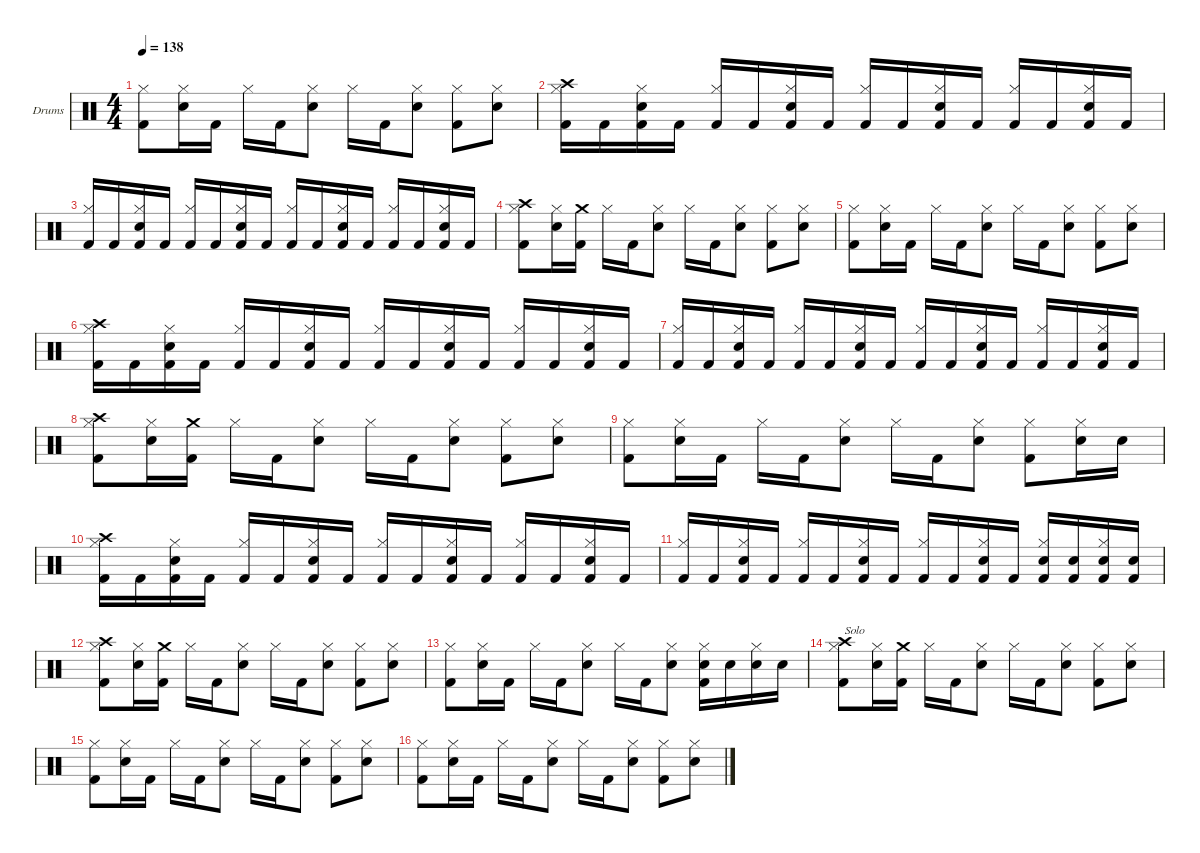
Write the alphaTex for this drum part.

\hideDynamics
\bracketExtendMode nobrackets
\firstSystemTrackNameOrientation horizontal
\otherSystemsTrackNameOrientation horizontal
\track ("Drumkit" "Drums") {instrument percussion}
\staff {score}
\articulation defaults
\ts (4 4)
\tempo 138
\clef neutral
\ks c
("Hi-Hat (closed)" "Kick (hit) 2").8{dy f beam Down} ("Snare (hit) 2" "Hi-Hat (closed)").16{beam Down} "Kick (hit) 2".16{beam Down} "Hi-Hat (closed)".16{beam Down} "Kick (hit) 2".16{beam Down} ("Snare (hit) 2" "Hi-Hat (closed)").8{beam Down} "Hi-Hat (closed)".16{beam Down} "Kick (hit) 2".16{beam Down} ("Snare (hit) 2" "Hi-Hat (closed)").8{beam Down} ("Hi-Hat (closed)" "Kick (hit) 2").8{beam Down} ("Snare (hit) 2" "Hi-Hat (closed)").8{beam Down} |
("Crash high (hit)" "Hi-Hat (closed)" "Kick (hit) 2").16{beam Down} "Kick (hit) 2".16{beam Down} ("Snare (hit) 2" "Hi-Hat (closed)" "Kick (hit) 2").16{beam Down} "Kick (hit) 2".16{beam Down} ("Hi-Hat (closed)" "Kick (hit) 2").16{beam Up} "Kick (hit) 2".16{beam Up} ("Snare (hit) 2" "Hi-Hat (closed)" "Kick (hit) 2").16{beam Up} "Kick (hit) 2".16{beam Up} ("Hi-Hat (closed)" "Kick (hit) 2").16{beam Up} "Kick (hit) 2".16{beam Up} ("Snare (hit) 2" "Hi-Hat (closed)" "Kick (hit) 2").16{beam Up} "Kick (hit) 2".16{beam Up} ("Hi-Hat (closed)" "Kick (hit) 2").16{beam Up} "Kick (hit) 2".16{beam Up} ("Snare (hit) 2" "Hi-Hat (closed)" "Kick (hit) 2").16{beam Up} "Kick (hit) 2".16{beam Up} |
("Hi-Hat (closed)" "Kick (hit) 2").16{beam Up} "Kick (hit) 2".16{beam Up} ("Snare (hit) 2" "Hi-Hat (closed)" "Kick (hit) 2").16{beam Up} "Kick (hit) 2".16{beam Up} ("Hi-Hat (closed)" "Kick (hit) 2").16{beam Up} "Kick (hit) 2".16{beam Up} ("Snare (hit) 2" "Hi-Hat (closed)" "Kick (hit) 2").16{beam Up} "Kick (hit) 2".16{beam Up} ("Hi-Hat (closed)" "Kick (hit) 2").16{beam Up} "Kick (hit) 2".16{beam Up} ("Snare (hit) 2" "Hi-Hat (closed)" "Kick (hit) 2").16{beam Up} "Kick (hit) 2".16{beam Up} ("Hi-Hat (closed)" "Kick (hit) 2").16{beam Up} "Kick (hit) 2".16{beam Up} ("Snare (hit) 2" "Hi-Hat (closed)" "Kick (hit) 2").16{beam Up} "Kick (hit) 2".16{beam Up} |
("Crash high (hit)" "Hi-Hat (closed)" "Kick (hit) 2").8{beam Down} ("Snare (hit) 2" "Hi-Hat (closed)").16{beam Down} ("Crash medium (hit)" "Kick (hit) 2").16{beam Down} "Hi-Hat (closed)".16{beam Down} "Kick (hit) 2".16{beam Down} ("Snare (hit) 2" "Hi-Hat (closed)").8{beam Down} "Hi-Hat (closed)".16{beam Down} "Kick (hit) 2".16{beam Down} ("Snare (hit) 2" "Hi-Hat (closed)").8{beam Down} ("Hi-Hat (closed)" "Kick (hit) 2").8{beam Down} ("Snare (hit) 2" "Hi-Hat (closed)").8{beam Down} |
("Hi-Hat (closed)" "Kick (hit) 2").8{beam Down} ("Snare (hit) 2" "Hi-Hat (closed)").16{beam Down} "Kick (hit) 2".16{beam Down} "Hi-Hat (closed)".16{beam Down} "Kick (hit) 2".16{beam Down} ("Snare (hit) 2" "Hi-Hat (closed)").8{beam Down} "Hi-Hat (closed)".16{beam Down} "Kick (hit) 2".16{beam Down} ("Snare (hit) 2" "Hi-Hat (closed)").8{beam Down} ("Hi-Hat (closed)" "Kick (hit) 2").8{beam Down} ("Snare (hit) 2" "Hi-Hat (closed)").8{beam Down} |
("Crash high (hit)" "Hi-Hat (closed)" "Kick (hit) 2").16{beam Down} "Kick (hit) 2".16{beam Down} ("Snare (hit) 2" "Hi-Hat (closed)" "Kick (hit) 2").16{beam Down} "Kick (hit) 2".16{beam Down} ("Hi-Hat (closed)" "Kick (hit) 2").16{beam Up} "Kick (hit) 2".16{beam Up} ("Snare (hit) 2" "Hi-Hat (closed)" "Kick (hit) 2").16{beam Up} "Kick (hit) 2".16{beam Up} ("Hi-Hat (closed)" "Kick (hit) 2").16{beam Up} "Kick (hit) 2".16{beam Up} ("Snare (hit) 2" "Hi-Hat (closed)" "Kick (hit) 2").16{beam Up} "Kick (hit) 2".16{beam Up} ("Hi-Hat (closed)" "Kick (hit) 2").16{beam Up} "Kick (hit) 2".16{beam Up} ("Snare (hit) 2" "Hi-Hat (closed)" "Kick (hit) 2").16{beam Up} "Kick (hit) 2".16{beam Up} |
("Hi-Hat (closed)" "Kick (hit) 2").16{beam Up} "Kick (hit) 2".16{beam Up} ("Snare (hit) 2" "Hi-Hat (closed)" "Kick (hit) 2").16{beam Up} "Kick (hit) 2".16{beam Up} ("Hi-Hat (closed)" "Kick (hit) 2").16{beam Up} "Kick (hit) 2".16{beam Up} ("Snare (hit) 2" "Hi-Hat (closed)" "Kick (hit) 2").16{beam Up} "Kick (hit) 2".16{beam Up} ("Hi-Hat (closed)" "Kick (hit) 2").16{beam Up} "Kick (hit) 2".16{beam Up} ("Snare (hit) 2" "Hi-Hat (closed)" "Kick (hit) 2").16{beam Up} "Kick (hit) 2".16{beam Up} ("Hi-Hat (closed)" "Kick (hit) 2").16{beam Up} "Kick (hit) 2".16{beam Up} ("Snare (hit) 2" "Hi-Hat (closed)" "Kick (hit) 2").16{beam Up} "Kick (hit) 2".16{beam Up} |
("Crash high (hit)" "Hi-Hat (closed)" "Kick (hit) 2").8{beam Down} ("Snare (hit) 2" "Hi-Hat (closed)").16{beam Down} ("Crash medium (hit)" "Kick (hit) 2").16{beam Down} "Hi-Hat (closed)".16{beam Down} "Kick (hit) 2".16{beam Down} ("Snare (hit) 2" "Hi-Hat (closed)").8{beam Down} "Hi-Hat (closed)".16{beam Down} "Kick (hit) 2".16{beam Down} ("Snare (hit) 2" "Hi-Hat (closed)").8{beam Down} ("Hi-Hat (closed)" "Kick (hit) 2").8{beam Down} ("Snare (hit) 2" "Hi-Hat (closed)").8{beam Down} |
("Hi-Hat (closed)" "Kick (hit) 2").8{beam Down} ("Snare (hit) 2" "Hi-Hat (closed)").16{beam Down} "Kick (hit) 2".16{beam Down} "Hi-Hat (closed)".16{beam Down} "Kick (hit) 2".16{beam Down} ("Snare (hit) 2" "Hi-Hat (closed)").8{beam Down} "Hi-Hat (closed)".16{beam Down} "Kick (hit) 2".16{beam Down} ("Snare (hit) 2" "Hi-Hat (closed)").8{beam Down} ("Hi-Hat (closed)" "Kick (hit) 2").8{beam Down} ("Snare (hit) 2" "Hi-Hat (closed)").16{beam Down} "Snare (hit) 2".16{beam Down} |
("Crash high (hit)" "Hi-Hat (closed)" "Kick (hit) 2").16{beam Down} "Kick (hit) 2".16{beam Down} ("Snare (hit) 2" "Hi-Hat (closed)" "Kick (hit) 2").16{beam Down} "Kick (hit) 2".16{beam Down} ("Hi-Hat (closed)" "Kick (hit) 2").16{beam Up} "Kick (hit) 2".16{beam Up} ("Snare (hit) 2" "Hi-Hat (closed)" "Kick (hit) 2").16{beam Up} "Kick (hit) 2".16{beam Up} ("Hi-Hat (closed)" "Kick (hit) 2").16{beam Up} "Kick (hit) 2".16{beam Up} ("Snare (hit) 2" "Hi-Hat (closed)" "Kick (hit) 2").16{beam Up} "Kick (hit) 2".16{beam Up} ("Hi-Hat (closed)" "Kick (hit) 2").16{beam Up} "Kick (hit) 2".16{beam Up} ("Snare (hit) 2" "Hi-Hat (closed)" "Kick (hit) 2").16{beam Up} "Kick (hit) 2".16{beam Up} |
("Hi-Hat (closed)" "Kick (hit) 2").16{beam Up} "Kick (hit) 2".16{beam Up} ("Snare (hit) 2" "Hi-Hat (closed)" "Kick (hit) 2").16{beam Up} "Kick (hit) 2".16{beam Up} ("Hi-Hat (closed)" "Kick (hit) 2").16{beam Up} "Kick (hit) 2".16{beam Up} ("Snare (hit) 2" "Hi-Hat (closed)" "Kick (hit) 2").16{beam Up} "Kick (hit) 2".16{beam Up} ("Hi-Hat (closed)" "Kick (hit) 2").16{beam Up} "Kick (hit) 2".16{beam Up} ("Snare (hit) 2" "Hi-Hat (closed)" "Kick (hit) 2").16{beam Up} "Kick (hit) 2".16{beam Up} ("Snare (hit) 2" "Hi-Hat (closed)" "Kick (hit) 2").16{beam Up} ("Snare (hit) 2" "Kick (hit) 2").16{beam Up} ("Snare (hit) 2" "Hi-Hat (closed)" "Kick (hit) 2").16{beam Up} ("Snare (hit) 2" "Kick (hit) 2").16{beam Up} |
("Crash high (hit)" "Hi-Hat (closed)" "Kick (hit) 2").8{beam Down} ("Snare (hit) 2" "Hi-Hat (closed)").16{beam Down} ("Crash medium (hit)" "Kick (hit) 2").16{beam Down} "Hi-Hat (closed)".16{beam Down} "Kick (hit) 2".16{beam Down} ("Snare (hit) 2" "Hi-Hat (closed)").8{beam Down} "Hi-Hat (closed)".16{beam Down} "Kick (hit) 2".16{beam Down} ("Snare (hit) 2" "Hi-Hat (closed)").8{beam Down} ("Hi-Hat (closed)" "Kick (hit) 2").8{beam Down} ("Snare (hit) 2" "Hi-Hat (closed)").8{beam Down} |
("Hi-Hat (closed)" "Kick (hit) 2").8{beam Down} ("Snare (hit) 2" "Hi-Hat (closed)").16{beam Down} "Kick (hit) 2".16{beam Down} "Hi-Hat (closed)".16{beam Down} "Kick (hit) 2".16{beam Down} ("Snare (hit) 2" "Hi-Hat (closed)").8{beam Down} "Hi-Hat (closed)".16{beam Down} "Kick (hit) 2".16{beam Down} ("Snare (hit) 2" "Hi-Hat (closed)").8{beam Down} ("Snare (hit) 2" "Hi-Hat (closed)" "Kick (hit) 2").16{beam Down} "Snare (hit) 2".16{beam Down} ("Snare (hit) 2" "Hi-Hat (closed)").16{beam Down} "Snare (hit) 2".16{beam Down} |
("Crash high (hit)" "Hi-Hat (closed)" "Kick (hit) 2").8{txt "Solo" beam Down} ("Snare (hit) 2" "Hi-Hat (closed)").16{beam Down} ("Crash medium (hit)" "Kick (hit) 2").16{beam Down} "Hi-Hat (closed)".16{beam Down} "Kick (hit) 2".16{beam Down} ("Snare (hit) 2" "Hi-Hat (closed)").8{beam Down} "Hi-Hat (closed)".16{beam Down} "Kick (hit) 2".16{beam Down} ("Snare (hit) 2" "Hi-Hat (closed)").8{beam Down} ("Hi-Hat (closed)" "Kick (hit) 2").8{beam Down} ("Snare (hit) 2" "Hi-Hat (closed)").8{beam Down} |
("Hi-Hat (closed)" "Kick (hit) 2").8{beam Down} ("Snare (hit) 2" "Hi-Hat (closed)").16{beam Down} "Kick (hit) 2".16{beam Down} "Hi-Hat (closed)".16{beam Down} "Kick (hit) 2".16{beam Down} ("Snare (hit) 2" "Hi-Hat (closed)").8{beam Down} "Hi-Hat (closed)".16{beam Down} "Kick (hit) 2".16{beam Down} ("Snare (hit) 2" "Hi-Hat (closed)").8{beam Down} ("Hi-Hat (closed)" "Kick (hit) 2").8{beam Down} ("Snare (hit) 2" "Hi-Hat (closed)").8{beam Down} |
("Hi-Hat (closed)" "Kick (hit) 2").8{beam Down} ("Snare (hit) 2" "Hi-Hat (closed)").16{beam Down} "Kick (hit) 2".16{beam Down} "Hi-Hat (closed)".16{beam Down} "Kick (hit) 2".16{beam Down} ("Snare (hit) 2" "Hi-Hat (closed)").8{beam Down} "Hi-Hat (closed)".16{beam Down} "Kick (hit) 2".16{beam Down} ("Snare (hit) 2" "Hi-Hat (closed)").8{beam Down} ("Hi-Hat (closed)" "Kick (hit) 2").8{beam Down} ("Snare (hit) 2" "Hi-Hat (closed)").8{beam Down}
